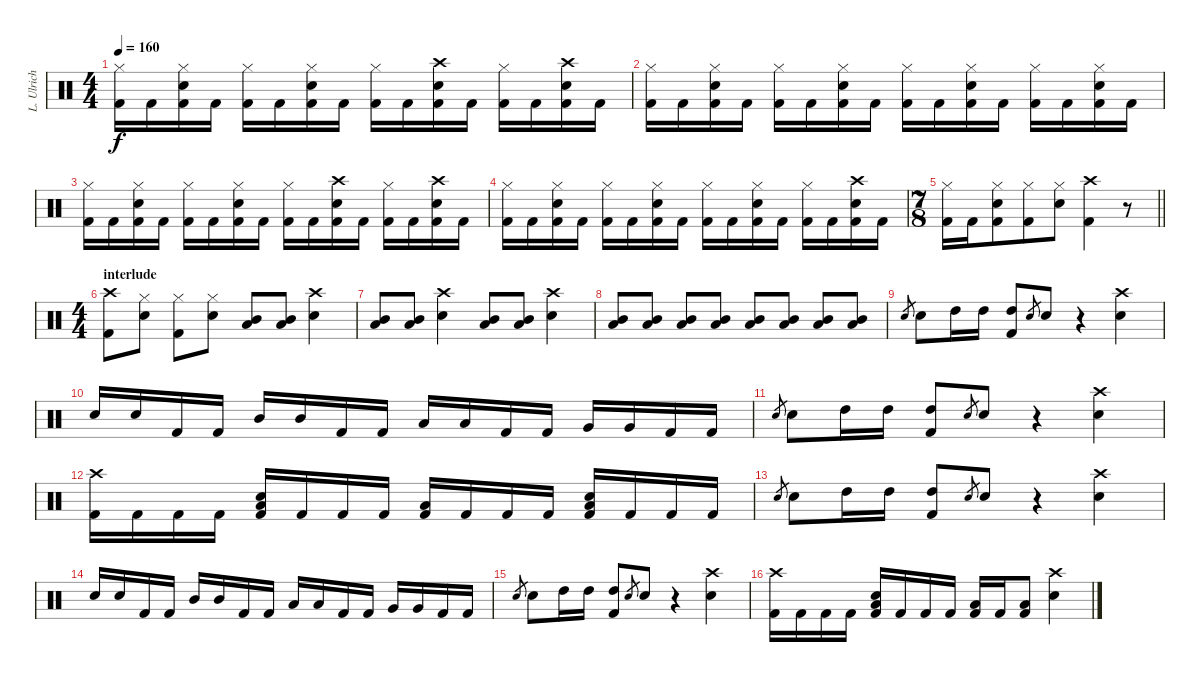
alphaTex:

\track ("L. Ulrich - Drums" "L. Ulrich ") {instrument percussion}
\staff {score}
\articulation defaults
\ts (4 4)
\tempo 160
\clef neutral
\ks c
("Hi-Hat (closed)" "Kick (hit) 2").16{dy f} "Kick (hit) 2".16 ("Hi-Hat (closed)" "Snare (hit) 2" "Kick (hit) 2").16 "Kick (hit) 2".16 ("Hi-Hat (closed)" "Kick (hit) 2").16 "Kick (hit) 2".16 ("Hi-Hat (closed)" "Snare (hit) 2" "Kick (hit) 2").16 "Kick (hit) 2".16 ("Hi-Hat (closed)" "Kick (hit) 2").16 "Kick (hit) 2".16 ("Crash high (hit)" "Snare (hit) 2" "Kick (hit) 2").16 "Kick (hit) 2".16 ("Hi-Hat (closed)" "Kick (hit) 2").16 "Kick (hit) 2".16 ("Crash high (hit)" "Snare (hit) 2" "Kick (hit) 2").16 "Kick (hit) 2".16 |
("Hi-Hat (closed)" "Kick (hit) 2").16 "Kick (hit) 2".16 ("Hi-Hat (closed)" "Snare (hit) 2" "Kick (hit) 2").16 "Kick (hit) 2".16 ("Hi-Hat (closed)" "Kick (hit) 2").16 "Kick (hit) 2".16 ("Hi-Hat (closed)" "Snare (hit) 2" "Kick (hit) 2").16 "Kick (hit) 2".16 ("Hi-Hat (closed)" "Kick (hit) 2").16 "Kick (hit) 2".16 ("Hi-Hat (closed)" "Snare (hit) 2" "Kick (hit) 2").16 "Kick (hit) 2".16 ("Hi-Hat (closed)" "Kick (hit) 2").16 "Kick (hit) 2".16 ("Hi-Hat (closed)" "Snare (hit) 2" "Kick (hit) 2").16 "Kick (hit) 2".16 |
("Hi-Hat (closed)" "Kick (hit) 2").16 "Kick (hit) 2".16 ("Hi-Hat (closed)" "Snare (hit) 2" "Kick (hit) 2").16 "Kick (hit) 2".16 ("Hi-Hat (closed)" "Kick (hit) 2").16 "Kick (hit) 2".16 ("Hi-Hat (closed)" "Snare (hit) 2" "Kick (hit) 2").16 "Kick (hit) 2".16 ("Hi-Hat (closed)" "Kick (hit) 2").16 "Kick (hit) 2".16 ("Crash high (hit)" "Snare (hit) 2" "Kick (hit) 2").16 "Kick (hit) 2".16 ("Hi-Hat (closed)" "Kick (hit) 2").16 "Kick (hit) 2".16 ("Crash high (hit)" "Snare (hit) 2" "Kick (hit) 2").16 "Kick (hit) 2".16 |
("Hi-Hat (closed)" "Kick (hit) 2").16 "Kick (hit) 2".16 ("Hi-Hat (closed)" "Snare (hit) 2" "Kick (hit) 2").16 "Kick (hit) 2".16 ("Hi-Hat (closed)" "Kick (hit) 2").16 "Kick (hit) 2".16 ("Hi-Hat (closed)" "Snare (hit) 2" "Kick (hit) 2").16 "Kick (hit) 2".16 ("Hi-Hat (closed)" "Kick (hit) 2").16 "Kick (hit) 2".16 ("Hi-Hat (closed)" "Snare (hit) 2" "Kick (hit) 2").16 "Kick (hit) 2".16 ("Hi-Hat (closed)" "Kick (hit) 2").16 "Kick (hit) 2".16 ("Crash high (hit)" "Snare (hit) 2" "Kick (hit) 2").16 "Kick (hit) 2".16 |
\ts (7 8)
\barLineRight lightlight
("Hi-Hat (closed)" "Kick (hit) 2").16 "Kick (hit) 2".16 ("Hi-Hat (closed)" "Snare (hit) 2" "Kick (hit) 2").8 ("Hi-Hat (closed)" "Kick (hit) 2").8 ("Hi-Hat (closed)" "Snare (hit) 2").8 ("Crash high (hit)" "Kick (hit) 2").4 r.8 |
\ts (4 4)
\section ("" "interlude")
("Crash high (hit)" "Kick (hit) 2").8 ("Hi-Hat (closed)" "Snare (hit) 2").8 ("Hi-Hat (closed)" "Kick (hit) 2").8 ("Hi-Hat (closed)" "Snare (hit) 2").8 ("Mid Tom (hit)" "Low Tom (hit)").8 ("Mid Tom (hit)" "Low Tom (hit)").8 ("Crash high (hit)" "Snare (hit) 2").4 |
("Mid Tom (hit)" "Low Tom (hit)").8 ("Mid Tom (hit)" "Low Tom (hit)").8 ("Crash high (hit)" "Snare (hit) 2").4 ("Mid Tom (hit)" "Low Tom (hit)").8 ("Mid Tom (hit)" "Low Tom (hit)").8 ("Crash high (hit)" "Snare (hit) 2").4 |
("Mid Tom (hit)" "Low Tom (hit)").8 ("Mid Tom (hit)" "Low Tom (hit)").8 ("Mid Tom (hit)" "Low Tom (hit)").8 ("Mid Tom (hit)" "Low Tom (hit)").8 ("Mid Tom (hit)" "Low Tom (hit)").8 ("Mid Tom (hit)" "Low Tom (hit)").8 ("Mid Tom (hit)" "Low Tom (hit)").8 ("Mid Tom (hit)" "Low Tom (hit)").8 |
"Snare (hit) 2".8{gr} "Snare (hit) 2".8 "High Tom (hit)".16 "High Tom (hit)".16 ("High Tom (hit)" "Kick (hit) 2").8 "Snare (hit) 2".8{gr} "Snare (hit) 2".8 r.4 ("Crash high (hit)" "Snare (hit) 2").4 |
"Snare (hit) 2".16 "Snare (hit) 2".16 "Kick (hit) 2".16 "Kick (hit) 2".16 "Mid Tom (hit)".16 "Mid Tom (hit)".16 "Kick (hit) 2".16 "Kick (hit) 2".16 "Low Tom (hit)".16 "Low Tom (hit)".16 "Kick (hit) 2".16 "Kick (hit) 2".16 "Very Low Tom (hit)".16 "Very Low Tom (hit)".16 "Kick (hit) 2".16 "Kick (hit) 2".16 |
"Snare (hit) 2".8{gr} "Snare (hit) 2".8 "High Tom (hit)".16 "High Tom (hit)".16 ("High Tom (hit)" "Kick (hit) 2").8 "Snare (hit) 2".8{gr} "Snare (hit) 2".8 r.4 ("Crash high (hit)" "Snare (hit) 2").4 |
("Crash high (hit)" "Kick (hit) 2").16 "Kick (hit) 2".16 "Kick (hit) 2".16 "Kick (hit) 2".16 ("Snare (hit) 2" "Low Floor Tom (hit)" "Kick (hit) 2").16 "Kick (hit) 2".16 "Kick (hit) 2".16 "Kick (hit) 2".16 ("Low Floor Tom (hit)" "Kick (hit) 2").16 "Kick (hit) 2".16 "Kick (hit) 2".16 "Kick (hit) 2".16 ("Snare (hit) 2" "Low Floor Tom (hit)" "Kick (hit) 2").16 "Kick (hit) 2".16 "Kick (hit) 2".16 "Kick (hit) 2".16 |
"Snare (hit) 2".8{gr} "Snare (hit) 2".8 "High Tom (hit)".16 "High Tom (hit)".16 ("High Tom (hit)" "Kick (hit) 2").8 "Snare (hit) 2".8{gr} "Snare (hit) 2".8 r.4 ("Crash high (hit)" "Snare (hit) 2").4 |
"Snare (hit) 2".16 "Snare (hit) 2".16 "Kick (hit) 2".16 "Kick (hit) 2".16 "Mid Tom (hit)".16 "Mid Tom (hit)".16 "Kick (hit) 2".16 "Kick (hit) 2".16 "Low Tom (hit)".16 "Low Tom (hit)".16 "Kick (hit) 2".16 "Kick (hit) 2".16 "Very Low Tom (hit)".16 "Very Low Tom (hit)".16 "Kick (hit) 2".16 "Kick (hit) 2".16 |
"Snare (hit) 2".8{gr} "Snare (hit) 2".8 "High Tom (hit)".16 "High Tom (hit)".16 ("High Tom (hit)" "Kick (hit) 2").8 "Snare (hit) 2".8{gr} "Snare (hit) 2".8 r.4 ("Crash high (hit)" "Snare (hit) 2").4 |
("Crash high (hit)" "Kick (hit) 2").16 "Kick (hit) 2".16 "Kick (hit) 2".16 "Kick (hit) 2".16 ("Snare (hit) 2" "Low Floor Tom (hit)" "Kick (hit) 2").16 "Kick (hit) 2".16 "Kick (hit) 2".16 "Kick (hit) 2".16 ("Low Floor Tom (hit)" "Kick (hit) 2").16 "Kick (hit) 2".16 ("Low Floor Tom (hit)" "Kick (hit) 2").8 ("Crash high (hit)" "Snare (hit) 2").4
